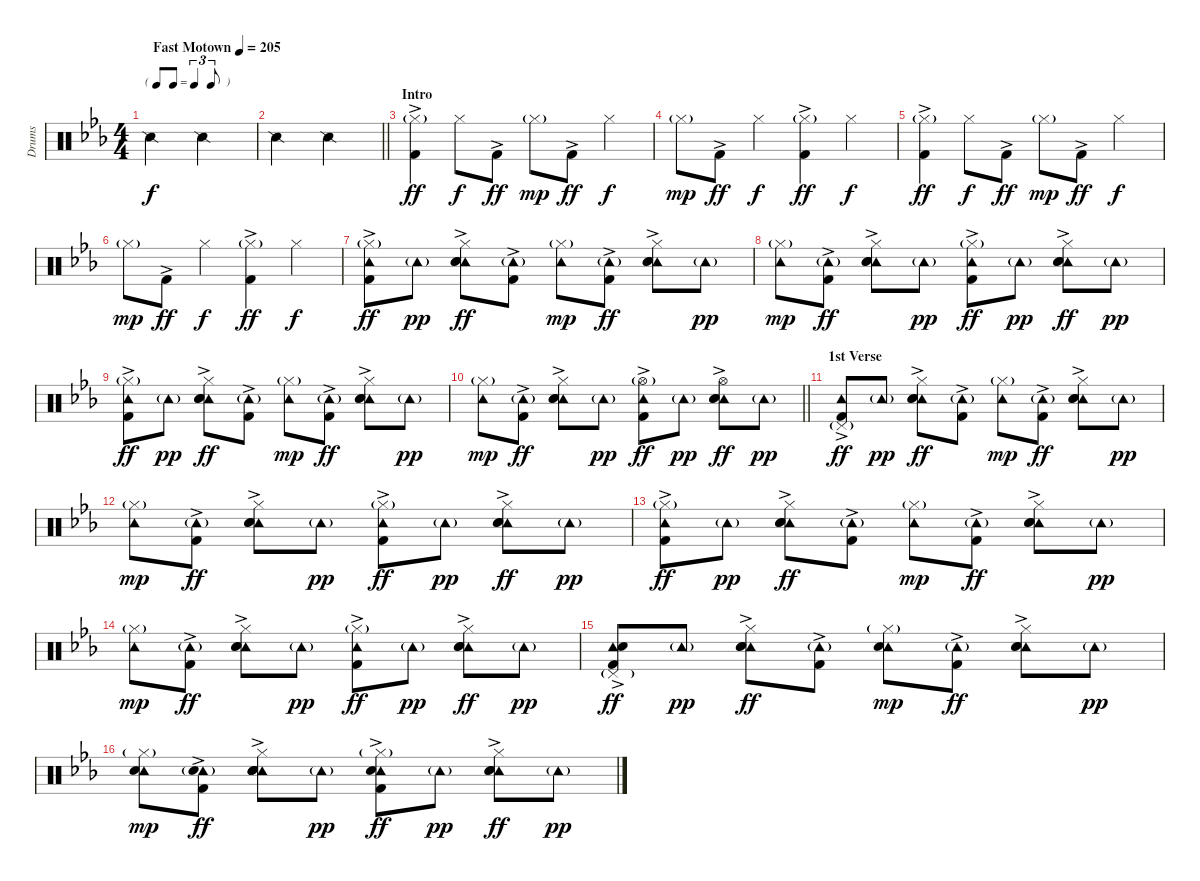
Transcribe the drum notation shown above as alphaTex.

\track ("Drums" "Drums") {instrument percussion}
\staff {score}
\articulation defaults
\ts (4 4)
\tf triplet8th
\tempo (205 "Fast Motown")
\clef neutral
\ks eb "Snare (side stick) 2".2{dy f} "Snare (side stick) 2".2
|
\barLineRight lightlight "Snare (side stick) 2".2 "Snare (side stick) 2".2
|
\section ("" "Intro")
("Hi-Hat (closed)"{g} "Kick (hit) 2"{ac}).4{dy ff} "Hi-Hat (closed)".8{dy f} "Kick (hit) 2"{ac}.8{dy ff} "Hi-Hat (closed)"{g}.8{dy mp} "Kick (hit) 2"{ac}.8{dy ff} "Hi-Hat (closed)".4{dy f} |
"Hi-Hat (closed)"{g}.8{dy mp} "Kick (hit) 2"{ac}.8{dy ff} "Hi-Hat (closed)".4{dy f} ("Hi-Hat (closed)"{g} "Kick (hit) 2"{ac}).4{dy ff} "Hi-Hat (closed)".4{dy f} |
("Hi-Hat (closed)"{g} "Kick (hit) 2"{ac}).4{dy ff} "Hi-Hat (closed)".8{dy f} "Kick (hit) 2"{ac}.8{dy ff} "Hi-Hat (closed)"{g}.8{dy mp} "Kick (hit) 2"{ac}.8{dy ff} "Hi-Hat (closed)".4{dy f} |
"Hi-Hat (closed)"{g}.8{dy mp} "Kick (hit) 2"{ac}.8{dy ff} "Hi-Hat (closed)".4{dy f} ("Hi-Hat (closed)"{g} "Kick (hit) 2"{ac}).4{dy ff} "Hi-Hat (closed)".4{dy f} |
("Hi-Hat (closed)"{g} "Tambourine (hit)" "Kick (hit) 2"{ac}).8{dy ff} "Tambourine (hit)"{g}.8{dy pp} ("Hi-Hat (closed)" "Tambourine (hit)"{ac} "Electric Snare (hit)"{ac} "Snare (hit) 2").8{dy ff} ("Tambourine (hit)"{g} "Kick (hit) 2"{ac}).8 ("Hi-Hat (closed)"{g} "Tambourine (hit)").8{dy mp} ("Tambourine (hit)"{g} "Kick (hit) 2"{ac}).8{dy ff} ("Hi-Hat (closed)" "Tambourine (hit)"{ac} "Electric Snare (hit)"{ac} "Snare (hit) 2").8 "Tambourine (hit)"{g}.8{dy pp} |
("Hi-Hat (closed)"{g} "Tambourine (hit)").8{dy mp} ("Tambourine (hit)"{g} "Kick (hit) 2"{ac}).8{dy ff} ("Hi-Hat (closed)" "Tambourine (hit)"{ac} "Electric Snare (hit)"{ac} "Snare (hit) 2").8 "Tambourine (hit)"{g}.8{dy pp} ("Hi-Hat (closed)"{g} "Tambourine (hit)" "Kick (hit) 2"{ac}).8{dy ff} "Tambourine (hit)"{g}.8{dy pp} ("Hi-Hat (closed)" "Tambourine (hit)"{ac} "Electric Snare (hit)"{ac} "Snare (hit) 2").8{dy ff} "Tambourine (hit)"{g}.8{dy pp} |
("Hi-Hat (closed)"{g} "Tambourine (hit)" "Kick (hit) 2"{ac}).8{dy ff} "Tambourine (hit)"{g}.8{dy pp} ("Hi-Hat (closed)" "Tambourine (hit)"{ac} "Electric Snare (hit)"{ac} "Snare (hit) 2").8{dy ff} ("Tambourine (hit)"{g} "Kick (hit) 2"{ac}).8 ("Hi-Hat (closed)"{g} "Tambourine (hit)").8{dy mp} ("Tambourine (hit)"{g} "Kick (hit) 2"{ac}).8{dy ff} ("Hi-Hat (closed)" "Tambourine (hit)"{ac} "Electric Snare (hit)"{ac} "Snare (hit) 2").8 "Tambourine (hit)"{g}.8{dy pp} |
\barLineRight lightlight
("Hi-Hat (closed)"{g} "Tambourine (hit)").8{dy mp} ("Tambourine (hit)"{g} "Kick (hit) 2"{ac}).8{dy ff} ("Hi-Hat (closed)" "Tambourine (hit)"{ac} "Electric Snare (hit)"{ac} "Snare (hit) 2").8 "Tambourine (hit)"{g}.8{dy pp} ("Hi-Hat (open)"{g} "Tambourine (hit)" "Kick (hit) 2"{ac}).8{dy ff} "Tambourine (hit)"{g}.8{dy pp} ("Hi-Hat (open)" "Tambourine (hit)"{ac} "Electric Snare (hit)"{ac} "Snare (hit) 2").8{dy ff} "Tambourine (hit)"{g}.8{dy pp} |
\section ("" "1st Verse")
("Pedal Hi-Hat (hit)"{g} "Tambourine (hit)" "Kick (hit) 2"{ac}).8{dy ff} "Tambourine (hit)"{g}.8{dy pp} ("Hi-Hat (closed)" "Tambourine (hit)"{ac} "Electric Snare (hit)"{ac} "Snare (hit) 2").8{dy ff} ("Tambourine (hit)"{g} "Kick (hit) 2"{ac}).8 ("Hi-Hat (closed)"{g} "Tambourine (hit)").8{dy mp} ("Tambourine (hit)"{g} "Kick (hit) 2"{ac}).8{dy ff} ("Hi-Hat (closed)" "Tambourine (hit)"{ac} "Electric Snare (hit)"{ac} "Snare (hit) 2").8 "Tambourine (hit)"{g}.8{dy pp} |
("Hi-Hat (closed)"{g} "Tambourine (hit)").8{dy mp} ("Tambourine (hit)"{g} "Kick (hit) 2"{ac}).8{dy ff} ("Hi-Hat (closed)" "Tambourine (hit)"{ac} "Electric Snare (hit)"{ac} "Snare (hit) 2").8 "Tambourine (hit)"{g}.8{dy pp} ("Hi-Hat (closed)"{g} "Tambourine (hit)" "Kick (hit) 2"{ac}).8{dy ff} "Tambourine (hit)"{g}.8{dy pp} ("Hi-Hat (closed)" "Tambourine (hit)"{ac} "Electric Snare (hit)"{ac} "Snare (hit) 2").8{dy ff} "Tambourine (hit)"{g}.8{dy pp} |
("Hi-Hat (closed)"{g} "Tambourine (hit)" "Kick (hit) 2"{ac}).8{dy ff} "Tambourine (hit)"{g}.8{dy pp} ("Hi-Hat (closed)" "Tambourine (hit)"{ac} "Electric Snare (hit)"{ac} "Snare (hit) 2").8{dy ff} ("Tambourine (hit)"{g} "Kick (hit) 2"{ac}).8 ("Hi-Hat (closed)"{g} "Tambourine (hit)").8{dy mp} ("Tambourine (hit)"{g} "Kick (hit) 2"{ac}).8{dy ff} ("Hi-Hat (closed)" "Tambourine (hit)"{ac} "Electric Snare (hit)"{ac} "Snare (hit) 2").8 "Tambourine (hit)"{g}.8{dy pp} |
("Hi-Hat (closed)"{g} "Tambourine (hit)").8{dy mp} ("Tambourine (hit)"{g} "Kick (hit) 2"{ac}).8{dy ff} ("Hi-Hat (closed)" "Tambourine (hit)"{ac} "Electric Snare (hit)"{ac} "Snare (hit) 2").8 "Tambourine (hit)"{g}.8{dy pp} ("Hi-Hat (closed)"{g} "Tambourine (hit)" "Kick (hit) 2"{ac}).8{dy ff} "Tambourine (hit)"{g}.8{dy pp} ("Hi-Hat (closed)" "Tambourine (hit)"{ac} "Electric Snare (hit)"{ac} "Snare (hit) 2").8{dy ff} "Tambourine (hit)"{g}.8{dy pp} |
("Pedal Hi-Hat (hit)"{g} "Tambourine (hit)" "Hand Clap (hit)" "Kick (hit) 2"{ac}).8{dy ff} "Tambourine (hit)"{g}.8{dy pp} ("Hi-Hat (closed)" "Tambourine (hit)"{ac} "Electric Snare (hit)"{ac} "Snare (hit) 2").8{dy ff} ("Tambourine (hit)"{g} "Kick (hit) 2"{ac}).8 ("Hi-Hat (closed)"{g} "Tambourine (hit)" "Hand Clap (hit)").8{dy mp} ("Tambourine (hit)"{g} "Kick (hit) 2"{ac}).8{dy ff} ("Hi-Hat (closed)" "Tambourine (hit)"{ac} "Electric Snare (hit)"{ac} "Snare (hit) 2").8 "Tambourine (hit)"{g}.8{dy pp} |
("Hi-Hat (closed)"{g} "Tambourine (hit)" "Hand Clap (hit)").8{dy mp} ("Tambourine (hit)"{g} "Hand Clap (hit)" "Kick (hit) 2"{ac}).8{dy ff} ("Hi-Hat (closed)" "Tambourine (hit)"{ac} "Hand Clap (hit)" "Electric Snare (hit)"{ac} "Snare (hit) 2").8 "Tambourine (hit)"{g}.8{dy pp} ("Hi-Hat (closed)"{g} "Tambourine (hit)" "Hand Clap (hit)" "Kick (hit) 2"{ac}).8{dy ff} "Tambourine (hit)"{g}.8{dy pp} ("Hi-Hat (closed)" "Tambourine (hit)"{ac} "Electric Snare (hit)"{ac} "Snare (hit) 2").8{dy ff} "Tambourine (hit)"{g}.8{dy pp}
